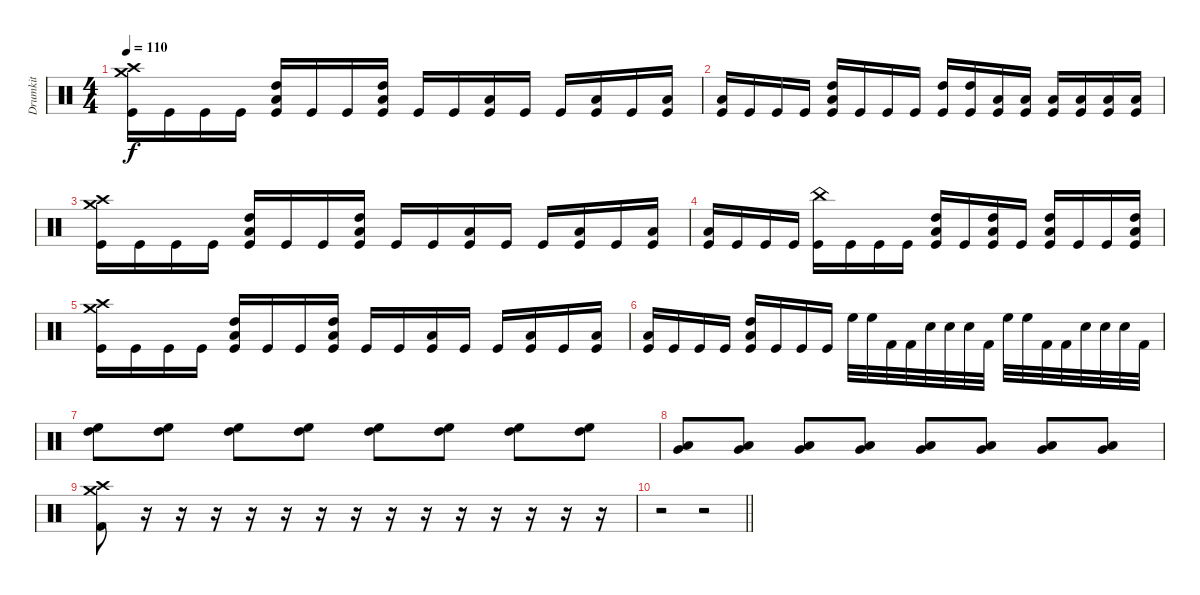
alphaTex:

\track ("Drumkit" "Drumkit") {instrument percussion}
\staff {score}
\articulation defaults
\ts (4 4)
\tempo 110
\clef neutral
\ks c
("Crash high (hit)" "Crash medium (hit)" "Kick (hit)").16{dy f} "Kick (hit)".16 "Kick (hit)".16 "Kick (hit)".16 ("High Tom (hit)" "Low Tom (hit)" "Kick (hit)").16 "Kick (hit)".16 "Kick (hit)".16 ("High Tom (hit)" "Low Tom (hit)" "Kick (hit)").16 "Kick (hit)".16 "Kick (hit)".16 ("Low Floor Tom (hit)" "Kick (hit)").16 "Kick (hit)".16 "Kick (hit)".16 ("Low Tom (hit)" "Kick (hit)").16 "Kick (hit)".16 ("Low Tom (hit)" "Kick (hit)").16 |
("Low Tom (hit)" "Kick (hit)").16 "Kick (hit)".16 "Kick (hit)".16 "Kick (hit)".16 ("High Tom (hit)" "Low Tom (hit)" "Kick (hit)").16 "Kick (hit)".16 "Kick (hit)".16 "Kick (hit)".16 ("High Tom (hit)" "Kick (hit)").16 ("High Tom (hit)" "Kick (hit)").16 ("Low Tom (hit)" "Kick (hit)").16 ("Low Tom (hit)" "Kick (hit)").16 ("Low Floor Tom (hit)" "Kick (hit)").16 ("Low Floor Tom (hit)" "Kick (hit)").16 ("Low Floor Tom (hit)" "Kick (hit)").16 ("Low Floor Tom (hit)" "Kick (hit)").16 |
("Crash high (hit)" "Crash medium (hit)" "Kick (hit)").16 "Kick (hit)".16 "Kick (hit)".16 "Kick (hit)".16 ("High Tom (hit)" "Low Tom (hit)" "Kick (hit)").16 "Kick (hit)".16 "Kick (hit)".16 ("High Tom (hit)" "Low Tom (hit)" "Kick (hit)").16 "Kick (hit)".16 "Kick (hit)".16 ("Low Floor Tom (hit)" "Kick (hit)").16 "Kick (hit)".16 "Kick (hit)".16 ("Low Tom (hit)" "Kick (hit)").16 "Kick (hit)".16 ("Low Tom (hit)" "Kick (hit)").16 |
("Low Tom (hit)" "Kick (hit)").16 "Kick (hit)".16 "Kick (hit)".16 "Kick (hit)".16 ("China (hit)" "Kick (hit)").16 "Kick (hit)".16 "Kick (hit)".16 "Kick (hit)".16 ("High Tom (hit)" "Low Floor Tom (hit)" "Kick (hit)").16 "Kick (hit)".16 ("High Tom (hit)" "Low Floor Tom (hit)" "Kick (hit)").16 "Kick (hit)".16 ("High Tom (hit)" "Low Floor Tom (hit)" "Kick (hit)").16 "Kick (hit)".16 "Kick (hit)".16 ("Low Tom (hit)" "High Tom (hit)" "Kick (hit)").16 |
("Crash high (hit)" "Crash medium (hit)" "Kick (hit)").16 "Kick (hit)".16 "Kick (hit)".16 "Kick (hit)".16 ("High Tom (hit)" "Low Tom (hit)" "Kick (hit)").16 "Kick (hit)".16 "Kick (hit)".16 ("High Tom (hit)" "Low Tom (hit)" "Kick (hit)").16 "Kick (hit)".16 "Kick (hit)".16 ("Low Floor Tom (hit)" "Kick (hit)").16 "Kick (hit)".16 "Kick (hit)".16 ("Low Tom (hit)" "Kick (hit)").16 "Kick (hit)".16 ("Low Tom (hit)" "Kick (hit)").16 |
("Low Tom (hit)" "Kick (hit)").16 "Kick (hit)".16 "Kick (hit)".16 "Kick (hit)".16 ("High Tom (hit)" "Low Tom (hit)" "Kick (hit)").16 "Kick (hit)".16 "Kick (hit)".16 "Kick (hit)".16 "High Floor Tom (hit)".32 "High Floor Tom (hit)".32 "Kick (hit) 2".32 "Kick (hit) 2".32 "Electric Snare (hit)".32 "Electric Snare (hit)".32 "Electric Snare (hit)".32 "Kick (hit) 2".32 "High Floor Tom (hit)".32 "High Floor Tom (hit)".32 "Kick (hit) 2".32 "Kick (hit) 2".32 "Electric Snare (hit)".32 "Electric Snare (hit)".32 "Electric Snare (hit)".32 "Kick (hit) 2".32 |
("High Tom (hit)" "High Floor Tom (hit)").8 ("High Tom (hit)" "High Floor Tom (hit)").8 ("High Tom (hit)" "High Floor Tom (hit)").8 ("High Tom (hit)" "High Floor Tom (hit)").8 ("High Tom (hit)" "High Floor Tom (hit)").8 ("High Tom (hit)" "High Floor Tom (hit)").8 ("High Tom (hit)" "High Floor Tom (hit)").8 ("High Tom (hit)" "High Floor Tom (hit)").8 |
("Low Tom (hit)" "Very Low Tom (hit)").8 ("Low Tom (hit)" "Very Low Tom (hit)").8 ("Low Tom (hit)" "Very Low Tom (hit)").8 ("Low Tom (hit)" "Very Low Tom (hit)").8 ("Low Tom (hit)" "Very Low Tom (hit)").8 ("Low Tom (hit)" "Very Low Tom (hit)").8 ("Low Tom (hit)" "Very Low Tom (hit)").8 ("Low Tom (hit)" "Very Low Tom (hit)").8 |
("Crash high (hit)" "Crash medium (hit)" "Kick (hit) 2").8 r.16 r.16 r.16 r.16 r.16 r.16 r.16 r.16 r.16 r.16 r.16 r.16 r.16 r.16 |
\barLineRight lightlight
r.2 r.2
